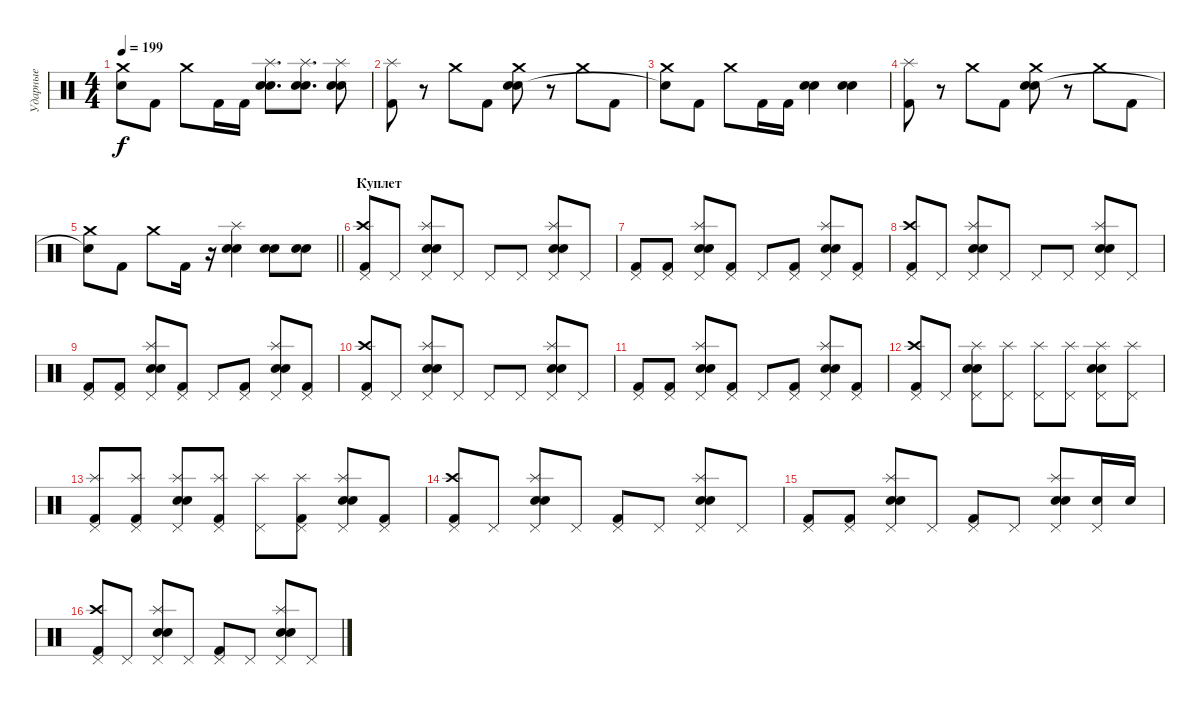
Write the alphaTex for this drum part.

\track ("Ударные" "Ударные") {instrument percussion}
\staff {score}
\articulation defaults
\ts (4 4)
\tempo 199
\clef neutral
\ks c
("Crash medium (hit)" "Snare (hit)"{t}).8{dy f} "Kick (hit) 2".8 "Crash medium (hit)".8 "Kick (hit) 2".16 "Kick (hit) 2".16 ("Splash (hit)" "Electric Snare (hit)" "Snare (hit) 2").8{d} ("Splash (hit)" "Electric Snare (hit)" "Snare (hit) 2").8{d} ("Splash (hit)" "Electric Snare (hit)" "Snare (hit) 2").8 |
("Splash (hit)" "Kick (hit) 2").8 r.8 "Crash medium (hit)".8 "Kick (hit) 2".8 ("Crash medium (hit)" "Electric Snare (hit)" "Snare (hit) 2").8 r.8 "Crash medium (hit)".8 "Kick (hit) 2".8 |
("Crash medium (hit)" "Snare (hit)"{t}).8 "Kick (hit) 2".8 "Crash medium (hit)".8 "Kick (hit) 2".16 "Kick (hit) 2".16 ("Electric Snare (hit)" "Snare (hit) 2").4 ("Electric Snare (hit)" "Snare (hit) 2").4 |
("Splash (hit)" "Kick (hit) 2").8 r.8 "Crash medium (hit)".8 "Kick (hit) 2".8 ("Crash medium (hit)" "Electric Snare (hit)" "Snare (hit) 2").8 r.8 "Crash medium (hit)".8 "Kick (hit) 2".8 |
\barLineRight lightlight
("Crash medium (hit)" "Snare (hit)"{t}).8 "Kick (hit) 2".8 "Crash medium (hit)".8 "Kick (hit) 2".16 r.16 ("Splash (hit)" "Electric Snare (hit)" "Snare (hit) 2").4 ("Electric Snare (hit)" "Snare (hit) 2").8 ("Electric Snare (hit)" "Snare (hit) 2").8 |
\section ("" "Куплет")
("Crash high (hit)" "Pedal Hi-Hat (hit)" "Kick (hit) 2").8 "Pedal Hi-Hat (hit)".8 ("Splash (hit)" "Pedal Hi-Hat (hit)" "Electric Snare (hit)" "Snare (hit) 2").8 "Pedal Hi-Hat (hit)".8 "Pedal Hi-Hat (hit)".8 "Pedal Hi-Hat (hit)".8 ("Splash (hit)" "Pedal Hi-Hat (hit)" "Electric Snare (hit)" "Snare (hit) 2").8 "Pedal Hi-Hat (hit)".8 |
("Pedal Hi-Hat (hit)" "Kick (hit) 2").8 ("Pedal Hi-Hat (hit)" "Kick (hit) 2").8 ("Splash (hit)" "Pedal Hi-Hat (hit)" "Electric Snare (hit)" "Snare (hit) 2").8 ("Pedal Hi-Hat (hit)" "Kick (hit) 2").8 "Pedal Hi-Hat (hit)".8 ("Pedal Hi-Hat (hit)" "Kick (hit) 2").8 ("Splash (hit)" "Pedal Hi-Hat (hit)" "Electric Snare (hit)" "Snare (hit) 2").8 ("Pedal Hi-Hat (hit)" "Kick (hit) 2").8 |
("Crash high (hit)" "Pedal Hi-Hat (hit)" "Kick (hit) 2").8 "Pedal Hi-Hat (hit)".8 ("Splash (hit)" "Pedal Hi-Hat (hit)" "Electric Snare (hit)" "Snare (hit) 2").8 "Pedal Hi-Hat (hit)".8 "Pedal Hi-Hat (hit)".8 "Pedal Hi-Hat (hit)".8 ("Splash (hit)" "Pedal Hi-Hat (hit)" "Electric Snare (hit)" "Snare (hit) 2").8 "Pedal Hi-Hat (hit)".8 |
("Pedal Hi-Hat (hit)" "Kick (hit) 2").8 ("Pedal Hi-Hat (hit)" "Kick (hit) 2").8 ("Splash (hit)" "Pedal Hi-Hat (hit)" "Electric Snare (hit)" "Snare (hit) 2").8 ("Pedal Hi-Hat (hit)" "Kick (hit) 2").8 "Pedal Hi-Hat (hit)".8 ("Pedal Hi-Hat (hit)" "Kick (hit) 2").8 ("Splash (hit)" "Pedal Hi-Hat (hit)" "Electric Snare (hit)" "Snare (hit) 2").8 ("Pedal Hi-Hat (hit)" "Kick (hit) 2").8 |
("Crash high (hit)" "Pedal Hi-Hat (hit)" "Kick (hit) 2").8 "Pedal Hi-Hat (hit)".8 ("Splash (hit)" "Pedal Hi-Hat (hit)" "Electric Snare (hit)" "Snare (hit) 2").8 "Pedal Hi-Hat (hit)".8 "Pedal Hi-Hat (hit)".8 "Pedal Hi-Hat (hit)".8 ("Splash (hit)" "Pedal Hi-Hat (hit)" "Electric Snare (hit)" "Snare (hit) 2").8 "Pedal Hi-Hat (hit)".8 |
("Pedal Hi-Hat (hit)" "Kick (hit) 2").8 ("Pedal Hi-Hat (hit)" "Kick (hit) 2").8 ("Splash (hit)" "Pedal Hi-Hat (hit)" "Electric Snare (hit)" "Snare (hit) 2").8 ("Pedal Hi-Hat (hit)" "Kick (hit) 2").8 "Pedal Hi-Hat (hit)".8 ("Pedal Hi-Hat (hit)" "Kick (hit) 2").8 ("Splash (hit)" "Pedal Hi-Hat (hit)" "Electric Snare (hit)" "Snare (hit) 2").8 ("Pedal Hi-Hat (hit)" "Kick (hit) 2").8 |
("Crash high (hit)" "Pedal Hi-Hat (hit)" "Kick (hit) 2").8 "Pedal Hi-Hat (hit)".8 ("Splash (hit)" "Pedal Hi-Hat (hit)" "Electric Snare (hit)" "Snare (hit) 2").8 ("Splash (hit)" "Pedal Hi-Hat (hit)").8 ("Splash (hit)" "Pedal Hi-Hat (hit)").8 ("Splash (hit)" "Pedal Hi-Hat (hit)").8 ("Splash (hit)" "Pedal Hi-Hat (hit)" "Electric Snare (hit)" "Snare (hit) 2").8 ("Splash (hit)" "Pedal Hi-Hat (hit)").8 |
("Splash (hit)" "Pedal Hi-Hat (hit)" "Kick (hit) 2").8 ("Splash (hit)" "Pedal Hi-Hat (hit)" "Kick (hit) 2").8 ("Splash (hit)" "Pedal Hi-Hat (hit)" "Electric Snare (hit)" "Snare (hit) 2").8 ("Splash (hit)" "Pedal Hi-Hat (hit)" "Kick (hit) 2").8 ("Splash (hit)" "Pedal Hi-Hat (hit)").8 ("Splash (hit)" "Pedal Hi-Hat (hit)" "Kick (hit) 2").8 ("Splash (hit)" "Pedal Hi-Hat (hit)" "Electric Snare (hit)" "Snare (hit) 2").8 ("Pedal Hi-Hat (hit)" "Kick (hit) 2").8 |
("Crash high (hit)" "Pedal Hi-Hat (hit)" "Kick (hit) 2").8 "Pedal Hi-Hat (hit)".8 ("Splash (hit)" "Pedal Hi-Hat (hit)" "Electric Snare (hit)" "Snare (hit) 2").8 "Pedal Hi-Hat (hit)".8 ("Pedal Hi-Hat (hit)" "Kick (hit) 2").8 "Pedal Hi-Hat (hit)".8 ("Splash (hit)" "Pedal Hi-Hat (hit)" "Electric Snare (hit)" "Snare (hit) 2").8 "Pedal Hi-Hat (hit)".8 |
("Pedal Hi-Hat (hit)" "Kick (hit) 2").8 ("Pedal Hi-Hat (hit)" "Kick (hit) 2").8 ("Splash (hit)" "Pedal Hi-Hat (hit)" "Electric Snare (hit)" "Snare (hit) 2").8 "Pedal Hi-Hat (hit)".8 ("Pedal Hi-Hat (hit)" "Kick (hit) 2").8 "Pedal Hi-Hat (hit)".8 ("Splash (hit)" "Pedal Hi-Hat (hit)" "Electric Snare (hit)" "Snare (hit) 2").8 ("Pedal Hi-Hat (hit)" "Electric Snare (hit)").16 "Electric Snare (hit)".16 |
("Crash high (hit)" "Pedal Hi-Hat (hit)" "Kick (hit) 2").8 "Pedal Hi-Hat (hit)".8 ("Splash (hit)" "Pedal Hi-Hat (hit)" "Electric Snare (hit)" "Snare (hit) 2").8 "Pedal Hi-Hat (hit)".8 ("Pedal Hi-Hat (hit)" "Kick (hit) 2").8 "Pedal Hi-Hat (hit)".8 ("Splash (hit)" "Pedal Hi-Hat (hit)" "Electric Snare (hit)" "Snare (hit) 2").8 "Pedal Hi-Hat (hit)".8
